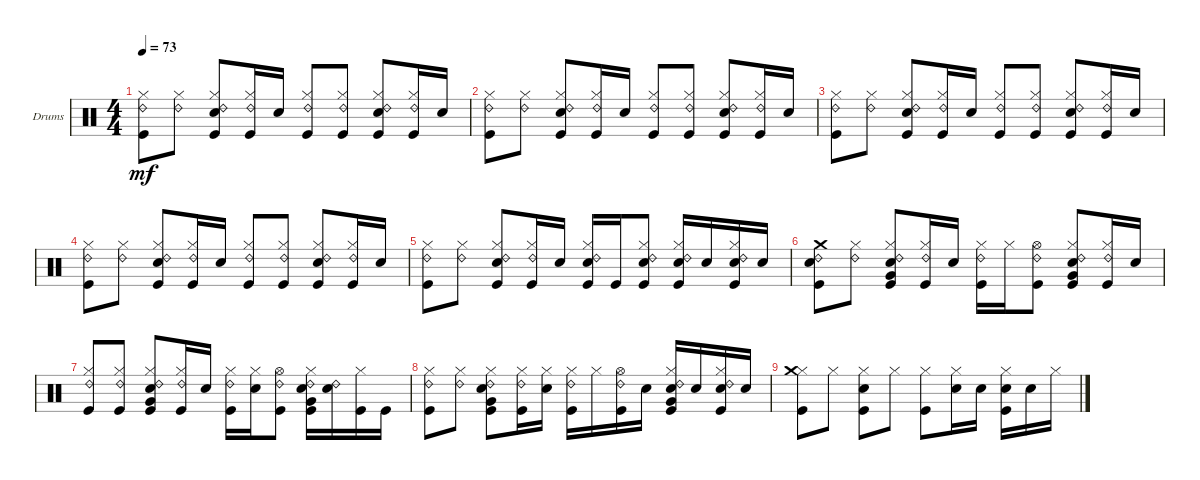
\bracketExtendMode groupsimilarinstruments
\firstSystemTrackNameOrientation horizontal
\otherSystemsTrackNameOrientation horizontal
\track ("Drums" "Drums") {instrument percussion}
\staff {score}
\articulation defaults
\ts (4 4)
\tempo 73
\clef neutral
\ks c
("Kick (hit)" "Hi-Hat (closed)" "Ride (bell) 2").8{dy mf} ("Hi-Hat (closed)" "Ride (bell) 2").8 ("Kick (hit)" "Snare (hit) 2" "Hi-Hat (closed)" "Ride (bell) 2").8 ("Hi-Hat (closed)" "Kick (hit)" "Ride (bell) 2").16 "Snare (hit) 2".16 ("Kick (hit)" "Hi-Hat (closed)" "Ride (bell) 2").8 ("Hi-Hat (closed)" "Kick (hit)" "Ride (bell) 2").8 ("Kick (hit)" "Snare (hit) 2" "Hi-Hat (closed)" "Ride (bell) 2").8 ("Hi-Hat (closed)" "Kick (hit)" "Ride (bell) 2").16 "Snare (hit) 2".16 |
("Kick (hit)" "Hi-Hat (closed)" "Ride (bell) 2").8 ("Hi-Hat (closed)" "Ride (bell) 2").8 ("Kick (hit)" "Snare (hit) 2" "Hi-Hat (closed)" "Ride (bell) 2").8 ("Hi-Hat (closed)" "Kick (hit)" "Ride (bell) 2").16 "Snare (hit) 2".16 ("Kick (hit)" "Hi-Hat (closed)" "Ride (bell) 2").8 ("Hi-Hat (closed)" "Kick (hit)" "Ride (bell) 2").8 ("Kick (hit)" "Snare (hit) 2" "Hi-Hat (closed)" "Ride (bell) 2").8 ("Hi-Hat (closed)" "Kick (hit)" "Ride (bell) 2").16 "Snare (hit) 2".16 |
("Kick (hit)" "Hi-Hat (closed)" "Ride (bell) 2").8 ("Hi-Hat (closed)" "Ride (bell) 2").8 ("Kick (hit)" "Snare (hit) 2" "Hi-Hat (closed)" "Ride (bell) 2").8 ("Hi-Hat (closed)" "Kick (hit)" "Ride (bell) 2").16 "Snare (hit) 2".16 ("Kick (hit)" "Hi-Hat (closed)" "Ride (bell) 2").8 ("Hi-Hat (closed)" "Kick (hit)" "Ride (bell) 2").8 ("Kick (hit)" "Snare (hit) 2" "Hi-Hat (closed)" "Ride (bell) 2").8 ("Hi-Hat (closed)" "Kick (hit)" "Ride (bell) 2").16 "Snare (hit) 2".16 |
("Kick (hit)" "Hi-Hat (closed)" "Ride (bell) 2").8 ("Hi-Hat (closed)" "Ride (bell) 2").8 ("Kick (hit)" "Snare (hit) 2" "Hi-Hat (closed)" "Ride (bell) 2").8 ("Hi-Hat (closed)" "Kick (hit)" "Ride (bell) 2").16 "Snare (hit) 2".16 ("Kick (hit)" "Hi-Hat (closed)" "Ride (bell) 2").8 ("Hi-Hat (closed)" "Kick (hit)" "Ride (bell) 2").8 ("Kick (hit)" "Snare (hit) 2" "Hi-Hat (closed)" "Ride (bell) 2").8 ("Hi-Hat (closed)" "Kick (hit)" "Ride (bell) 2").16 "Snare (hit) 2".16 |
("Kick (hit)" "Hi-Hat (closed)" "Ride (bell) 2").8 ("Hi-Hat (closed)" "Ride (bell) 2").8 ("Kick (hit)" "Snare (hit) 2" "Hi-Hat (closed)" "Ride (bell) 2").8 ("Hi-Hat (closed)" "Kick (hit)" "Ride (bell) 2").16 "Snare (hit) 2".16 ("Snare (hit) 2" "Hi-Hat (closed)" "Kick (hit)" "Ride (bell) 2").16 "Kick (hit)".16 ("Snare (hit) 2" "Hi-Hat (closed)" "Kick (hit)" "Ride (bell) 2").8 ("Kick (hit)" "Snare (hit) 2" "Hi-Hat (closed)" "Ride (bell) 2").16 "Snare (hit) 2".16 ("Snare (hit) 2" "Hi-Hat (closed)" "Kick (hit)" "Ride (bell) 2").16 "Snare (hit) 2".16 |
("Kick (hit)" "Snare (hit) 2" "Crash medium (hit)" "Ride (bell) 2").8 ("Hi-Hat (closed)" "Ride (bell) 2").8 ("Kick (hit)" "Snare (hit) 2" "Hi-Hat (closed)" "Very Low Tom (hit)" "Ride (bell) 2").8 ("Hi-Hat (closed)" "Kick (hit)" "Ride (bell) 2").16 "Snare (hit) 2".16 ("Kick (hit)" "Hi-Hat (closed)" "Ride (bell) 2").16 "Hi-Hat (closed)".16 ("Hi-Hat (open)" "Kick (hit)" "Ride (bell) 2").8 ("Kick (hit)" "Snare (hit) 2" "Hi-Hat (closed)" "Very Low Tom (hit)" "Ride (bell) 2").8 ("Hi-Hat (closed)" "Kick (hit)" "Ride (bell) 2").16 "Snare (hit) 2".16 |
("Kick (hit)" "Hi-Hat (closed)" "Ride (bell) 2").8 ("Hi-Hat (closed)" "Kick (hit)" "Ride (bell) 2").8 ("Kick (hit)" "Snare (hit) 2" "Hi-Hat (closed)" "Very Low Tom (hit)" "Ride (bell) 2").8 ("Hi-Hat (closed)" "Kick (hit)" "Ride (bell) 2").16 "Snare (hit) 2".16 ("Kick (hit)" "Hi-Hat (closed)" "Ride (bell) 2").16 ("Snare (hit) 2" "Hi-Hat (closed)").16 ("Hi-Hat (open)" "Kick (hit)" "Ride (bell) 2").8 ("Kick (hit)" "Snare (hit) 2" "Hi-Hat (closed)" "Very Low Tom (hit)" "Ride (bell) 2").16 ("Snare (hit) 2" "Ride (bell) 2").16 ("Hi-Hat (closed)" "Kick (hit)").16 "Kick (hit)".16 |
("Kick (hit)" "Hi-Hat (closed)" "Ride (bell) 2").8 ("Hi-Hat (closed)" "Ride (bell) 2").8 ("Kick (hit)" "Snare (hit) 2" "Hi-Hat (closed)" "Very Low Tom (hit)" "Ride (bell) 2").8 ("Hi-Hat (closed)" "Kick (hit)" "Ride (bell) 2").16 ("Hi-Hat (closed)" "Snare (hit) 2").16 ("Kick (hit)" "Hi-Hat (closed)" "Ride (bell) 2").16 "Hi-Hat (closed)".16 ("Hi-Hat (open)" "Kick (hit)" "Ride (bell) 2").16 "Snare (hit) 2".16 ("Kick (hit)" "Snare (hit) 2" "Hi-Hat (closed)" "Very Low Tom (hit)" "Ride (bell) 2").16 "Snare (hit) 2".16 ("Snare (hit) 2" "Hi-Hat (closed)" "Kick (hit)" "Ride (bell) 2").16 "Snare (hit) 2".16 |
("Kick (hit)" "Hi-Hat (closed)" "Crash medium (hit)").8 "Hi-Hat (closed)".8 ("Kick (hit)" "Snare (hit) 2" "Hi-Hat (closed)").8 "Hi-Hat (closed)".8 ("Kick (hit)" "Hi-Hat (closed)").8 ("Snare (hit) 2" "Hi-Hat (closed)").16 "Snare (hit) 2".16 ("Kick (hit)" "Snare (hit) 2" "Hi-Hat (closed)").16 "Snare (hit) 2".16 "Hi-Hat (closed)".16
